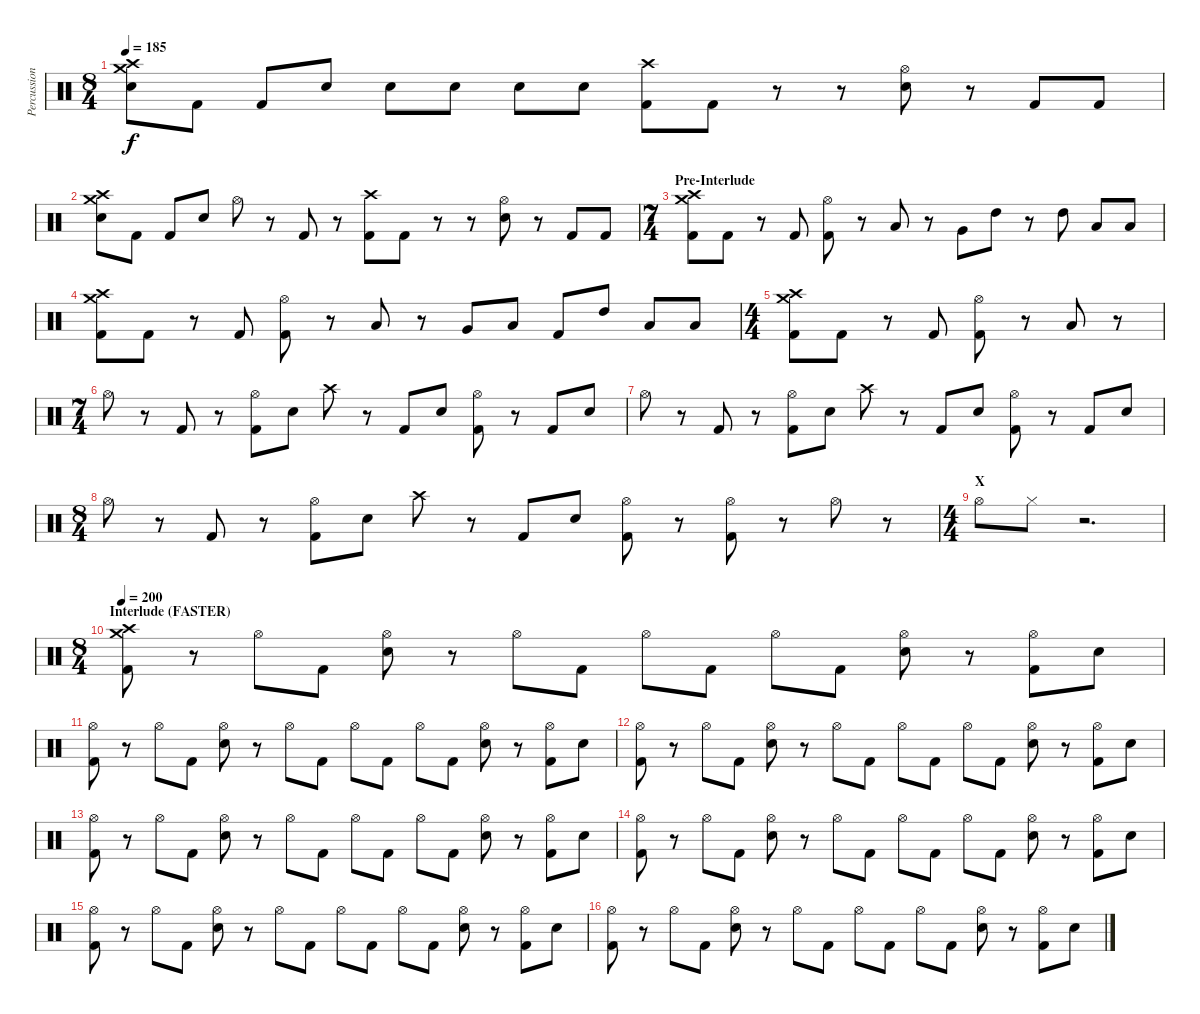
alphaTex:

\track ("Percussion" "Percussion") {instrument percussion}
\staff {score}
\articulation defaults
\ts (8 4)
\tempo 185
\clef neutral
\ks c
("Crash high (hit)" "Crash medium (hit)" "Electric Snare (hit)").8{dy f} "Kick (hit) 2".8 "Kick (hit) 2".8 "Electric Snare (hit)".8 "Electric Snare (hit)".8 "Electric Snare (hit)".8 "Electric Snare (hit)".8 "Electric Snare (hit)".8 ("Crash high (hit)" "Kick (hit) 2").8 "Kick (hit) 2".8 r.8 r.8 ("Hi-Hat (open)" "Electric Snare (hit)").8 r.8 "Kick (hit) 2".8 "Kick (hit) 2".8 |
("Crash high (hit)" "Crash medium (hit)" "Electric Snare (hit)").8 "Kick (hit) 2".8 "Kick (hit) 2".8 "Electric Snare (hit)".8 "Hi-Hat (open)".8 r.8 "Kick (hit) 2".8 r.8 ("Crash high (hit)" "Kick (hit) 2").8 "Kick (hit) 2".8 r.8 r.8 ("Hi-Hat (open)" "Electric Snare (hit)").8 r.8 "Kick (hit) 2".8 "Kick (hit) 2".8 |
\ts (7 4)
\section ("" "Pre-Interlude")
("Crash high (hit)" "Crash medium (hit)" "Kick (hit) 2").8 "Kick (hit) 2".8 r.8 "Kick (hit) 2".8 ("Hi-Hat (open)" "Kick (hit) 2").8 r.8 "Low Tom (hit)".8 r.8 "Very Low Tom (hit)".8 "High Tom (hit)".8 r.8 "High Tom (hit)".8 "Low Tom (hit)".8 "Low Tom (hit)".8 |
("Crash high (hit)" "Crash medium (hit)" "Kick (hit) 2").8 "Kick (hit) 2".8 r.8 "Kick (hit) 2".8 ("Hi-Hat (open)" "Kick (hit) 2").8 r.8 "Low Tom (hit)".8 r.8 "Very Low Tom (hit)".8 "Low Tom (hit)".8 "Kick (hit) 2".8 "High Tom (hit)".8 "Low Tom (hit)".8 "Low Tom (hit)".8 |
\ts (4 4)
("Crash high (hit)" "Crash medium (hit)" "Kick (hit) 2").8 "Kick (hit) 2".8 r.8 "Kick (hit) 2".8 ("Hi-Hat (open)" "Kick (hit) 2").8 r.8 "Low Tom (hit)".8 r.8 |
\ts (7 4)
"Hi-Hat (open)".8 r.8 "Kick (hit) 2".8 r.8 ("Hi-Hat (open)" "Kick (hit) 2").8 "Electric Snare (hit)".8 "Crash high (hit)".8 r.8 "Kick (hit) 2".8 "Electric Snare (hit)".8 ("Hi-Hat (open)" "Kick (hit) 2").8 r.8 "Kick (hit) 2".8 "Electric Snare (hit)".8 |
"Hi-Hat (open)".8 r.8 "Kick (hit) 2".8 r.8 ("Hi-Hat (open)" "Kick (hit) 2").8 "Electric Snare (hit)".8 "Crash high (hit)".8 r.8 "Kick (hit) 2".8 "Electric Snare (hit)".8 ("Hi-Hat (open)" "Kick (hit) 2").8 r.8 "Kick (hit) 2".8 "Electric Snare (hit)".8 |
\ts (8 4)
"Hi-Hat (open)".8 r.8 "Kick (hit) 2".8 r.8 ("Hi-Hat (open)" "Kick (hit) 2").8 "Electric Snare (hit)".8 "Crash high (hit)".8 r.8 "Kick (hit) 2".8 "Electric Snare (hit)".8 ("Hi-Hat (open)" "Kick (hit) 2").8 r.8 ("Hi-Hat (open)" "Kick (hit) 2").8 r.8 "Hi-Hat (open)".8 r.8 |
\ts (4 4)
\section ("" "X")
"Hi-Hat (open)".8 "Hi-Hat (closed)".8 r.2{d} |
\ts (8 4)
\section ("" "Interlude (FASTER)")
\tempo 200
("Crash high (hit)" "Crash medium (hit)" "Kick (hit) 2").8 r.8 "Hi-Hat (open)".8 "Kick (hit) 2".8 ("Hi-Hat (open)" "Electric Snare (hit)").8 r.8 "Hi-Hat (open)".8 "Kick (hit) 2".8 "Hi-Hat (open)".8 "Kick (hit) 2".8 "Hi-Hat (open)".8 "Kick (hit) 2".8 ("Hi-Hat (open)" "Electric Snare (hit)").8 r.8 ("Hi-Hat (open)" "Kick (hit) 2").8 "Electric Snare (hit)".8 |
("Hi-Hat (open)" "Kick (hit) 2").8 r.8 "Hi-Hat (open)".8 "Kick (hit) 2".8 ("Hi-Hat (open)" "Electric Snare (hit)").8 r.8 "Hi-Hat (open)".8 "Kick (hit) 2".8 "Hi-Hat (open)".8 "Kick (hit) 2".8 "Hi-Hat (open)".8 "Kick (hit) 2".8 ("Hi-Hat (open)" "Electric Snare (hit)").8 r.8 ("Hi-Hat (open)" "Kick (hit) 2").8 "Electric Snare (hit)".8 |
("Hi-Hat (open)" "Kick (hit) 2").8 r.8 "Hi-Hat (open)".8 "Kick (hit) 2".8 ("Hi-Hat (open)" "Electric Snare (hit)").8 r.8 "Hi-Hat (open)".8 "Kick (hit) 2".8 "Hi-Hat (open)".8 "Kick (hit) 2".8 "Hi-Hat (open)".8 "Kick (hit) 2".8 ("Hi-Hat (open)" "Electric Snare (hit)").8 r.8 ("Hi-Hat (open)" "Kick (hit) 2").8 "Electric Snare (hit)".8 |
("Hi-Hat (open)" "Kick (hit) 2").8 r.8 "Hi-Hat (open)".8 "Kick (hit) 2".8 ("Hi-Hat (open)" "Electric Snare (hit)").8 r.8 "Hi-Hat (open)".8 "Kick (hit) 2".8 "Hi-Hat (open)".8 "Kick (hit) 2".8 "Hi-Hat (open)".8 "Kick (hit) 2".8 ("Hi-Hat (open)" "Electric Snare (hit)").8 r.8 ("Hi-Hat (open)" "Kick (hit) 2").8 "Electric Snare (hit)".8 |
("Hi-Hat (open)" "Kick (hit) 2").8 r.8 "Hi-Hat (open)".8 "Kick (hit) 2".8 ("Hi-Hat (open)" "Electric Snare (hit)").8 r.8 "Hi-Hat (open)".8 "Kick (hit) 2".8 "Hi-Hat (open)".8 "Kick (hit) 2".8 "Hi-Hat (open)".8 "Kick (hit) 2".8 ("Hi-Hat (open)" "Electric Snare (hit)").8 r.8 ("Hi-Hat (open)" "Kick (hit) 2").8 "Electric Snare (hit)".8 |
("Hi-Hat (open)" "Kick (hit) 2").8 r.8 "Hi-Hat (open)".8 "Kick (hit) 2".8 ("Hi-Hat (open)" "Electric Snare (hit)").8 r.8 "Hi-Hat (open)".8 "Kick (hit) 2".8 "Hi-Hat (open)".8 "Kick (hit) 2".8 "Hi-Hat (open)".8 "Kick (hit) 2".8 ("Hi-Hat (open)" "Electric Snare (hit)").8 r.8 ("Hi-Hat (open)" "Kick (hit) 2").8 "Electric Snare (hit)".8 |
("Hi-Hat (open)" "Kick (hit) 2").8 r.8 "Hi-Hat (open)".8 "Kick (hit) 2".8 ("Hi-Hat (open)" "Electric Snare (hit)").8 r.8 "Hi-Hat (open)".8 "Kick (hit) 2".8 "Hi-Hat (open)".8 "Kick (hit) 2".8 "Hi-Hat (open)".8 "Kick (hit) 2".8 ("Hi-Hat (open)" "Electric Snare (hit)").8 r.8 ("Hi-Hat (open)" "Kick (hit) 2").8 "Electric Snare (hit)".8
